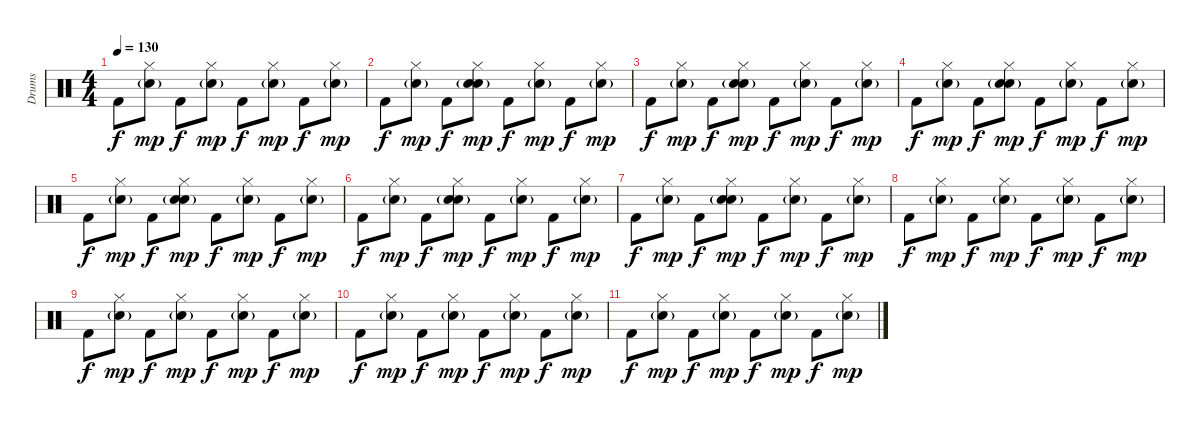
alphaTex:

\track ("Drums" "Drums") {instrument percussion}
\staff {score}
\articulation defaults
\ts (4 4)
\tempo 130
\clef neutral
\ks c "Kick (hit) 2".8{dy f}
("Hi-Hat (closed)" "Hand Clap (hit)"{g}).8{dy mp} "Kick (hit) 2".8{dy f} ("Hi-Hat (closed)" "Hand Clap (hit)"{g}).8{dy mp} "Kick (hit) 2".8{dy f} ("Hi-Hat (closed)" "Hand Clap (hit)"{g}).8{dy mp} "Kick (hit) 2".8{dy f} ("Hi-Hat (closed)" "Hand Clap (hit)"{g}).8{dy mp} |
"Kick (hit) 2".8{dy f} ("Hi-Hat (closed)" "Hand Clap (hit)"{g}).8{dy mp} "Kick (hit) 2".8{dy f} ("Hi-Hat (closed)" "Hand Clap (hit)"{g} "Electric Snare (hit)").8{dy mp} "Kick (hit) 2".8{dy f} ("Hi-Hat (closed)" "Hand Clap (hit)"{g}).8{dy mp} "Kick (hit) 2".8{dy f} ("Hi-Hat (closed)" "Hand Clap (hit)"{g}).8{dy mp} |
"Kick (hit) 2".8{dy f} ("Hi-Hat (closed)" "Hand Clap (hit)"{g}).8{dy mp} "Kick (hit) 2".8{dy f} ("Hi-Hat (closed)" "Hand Clap (hit)"{g} "Electric Snare (hit)").8{dy mp} "Kick (hit) 2".8{dy f} ("Hi-Hat (closed)" "Hand Clap (hit)"{g}).8{dy mp} "Kick (hit) 2".8{dy f} ("Hi-Hat (closed)" "Hand Clap (hit)"{g}).8{dy mp} |
"Kick (hit) 2".8{dy f} ("Hi-Hat (closed)" "Hand Clap (hit)"{g}).8{dy mp} "Kick (hit) 2".8{dy f} ("Hi-Hat (closed)" "Hand Clap (hit)"{g} "Electric Snare (hit)").8{dy mp} "Kick (hit) 2".8{dy f} ("Hi-Hat (closed)" "Hand Clap (hit)"{g}).8{dy mp} "Kick (hit) 2".8{dy f} ("Hi-Hat (closed)" "Hand Clap (hit)"{g}).8{dy mp} |
"Kick (hit) 2".8{dy f} ("Hi-Hat (closed)" "Hand Clap (hit)"{g}).8{dy mp} "Kick (hit) 2".8{dy f} ("Hi-Hat (closed)" "Hand Clap (hit)"{g} "Electric Snare (hit)").8{dy mp} "Kick (hit) 2".8{dy f} ("Hi-Hat (closed)" "Hand Clap (hit)"{g}).8{dy mp} "Kick (hit) 2".8{dy f} ("Hi-Hat (closed)" "Hand Clap (hit)"{g}).8{dy mp} |
"Kick (hit) 2".8{dy f} ("Hi-Hat (closed)" "Hand Clap (hit)"{g}).8{dy mp} "Kick (hit) 2".8{dy f} ("Hi-Hat (closed)" "Hand Clap (hit)"{g} "Electric Snare (hit)").8{dy mp} "Kick (hit) 2".8{dy f} ("Hi-Hat (closed)" "Hand Clap (hit)"{g}).8{dy mp} "Kick (hit) 2".8{dy f} ("Hi-Hat (closed)" "Hand Clap (hit)"{g}).8{dy mp} |
"Kick (hit) 2".8{dy f} ("Hi-Hat (closed)" "Hand Clap (hit)"{g}).8{dy mp} "Kick (hit) 2".8{dy f} ("Hi-Hat (closed)" "Hand Clap (hit)"{g} "Electric Snare (hit)").8{dy mp} "Kick (hit) 2".8{dy f} ("Hi-Hat (closed)" "Hand Clap (hit)"{g}).8{dy mp} "Kick (hit) 2".8{dy f} ("Hi-Hat (closed)" "Hand Clap (hit)"{g}).8{dy mp} |
"Kick (hit) 2".8{dy f} ("Hi-Hat (closed)" "Hand Clap (hit)"{g}).8{dy mp} "Kick (hit) 2".8{dy f} ("Hi-Hat (closed)" "Hand Clap (hit)"{g}).8{dy mp} "Kick (hit) 2".8{dy f} ("Hi-Hat (closed)" "Hand Clap (hit)"{g}).8{dy mp} "Kick (hit) 2".8{dy f} ("Hi-Hat (closed)" "Hand Clap (hit)"{g}).8{dy mp} |
"Kick (hit) 2".8{dy f} ("Hi-Hat (closed)" "Hand Clap (hit)"{g}).8{dy mp} "Kick (hit) 2".8{dy f} ("Hi-Hat (closed)" "Hand Clap (hit)"{g}).8{dy mp} "Kick (hit) 2".8{dy f} ("Hi-Hat (closed)" "Hand Clap (hit)"{g}).8{dy mp} "Kick (hit) 2".8{dy f} ("Hi-Hat (closed)" "Hand Clap (hit)"{g}).8{dy mp} |
"Kick (hit) 2".8{dy f} ("Hi-Hat (closed)" "Hand Clap (hit)"{g}).8{dy mp} "Kick (hit) 2".8{dy f} ("Hi-Hat (closed)" "Hand Clap (hit)"{g}).8{dy mp} "Kick (hit) 2".8{dy f} ("Hi-Hat (closed)" "Hand Clap (hit)"{g}).8{dy mp} "Kick (hit) 2".8{dy f} ("Hi-Hat (closed)" "Hand Clap (hit)"{g}).8{dy mp} |
"Kick (hit) 2".8{dy f} ("Hi-Hat (closed)" "Hand Clap (hit)"{g}).8{dy mp} "Kick (hit) 2".8{dy f} ("Hi-Hat (closed)" "Hand Clap (hit)"{g}).8{dy mp} "Kick (hit) 2".8{dy f} ("Hi-Hat (closed)" "Hand Clap (hit)"{g}).8{dy mp} "Kick (hit) 2".8{dy f} ("Hi-Hat (closed)" "Hand Clap (hit)"{g}).8{dy mp}
